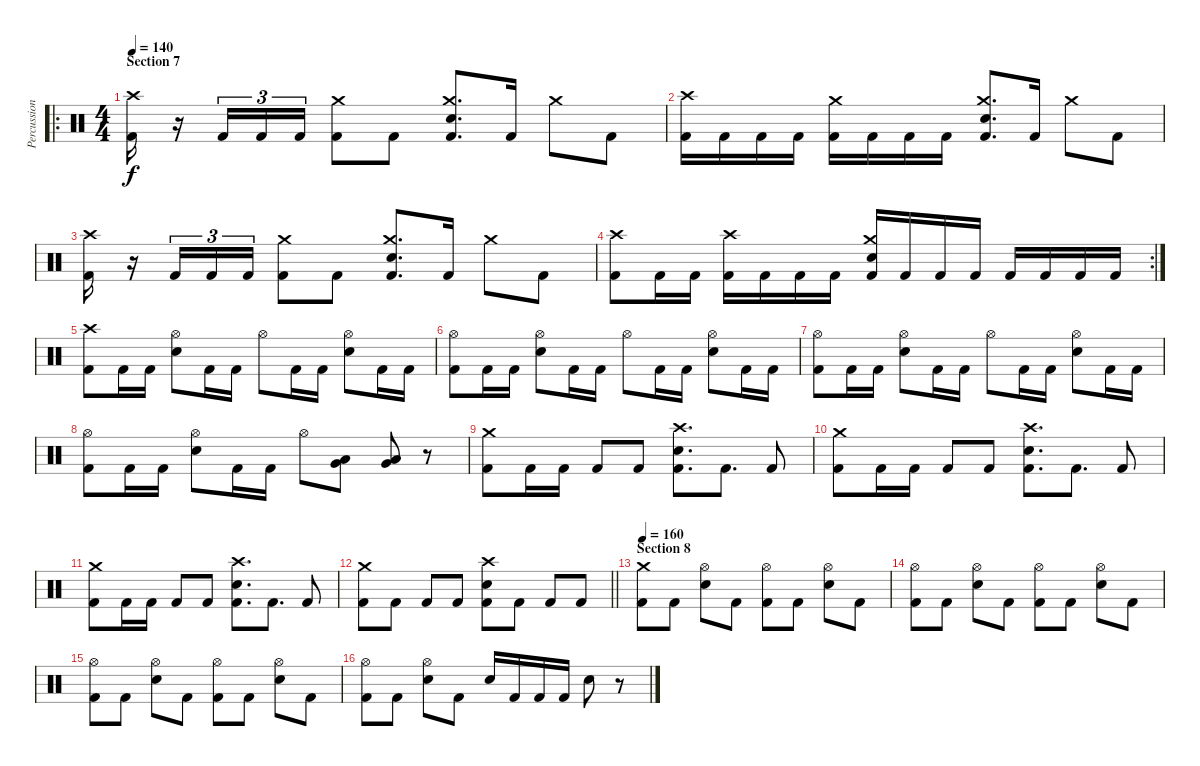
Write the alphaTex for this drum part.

\track ("Percussion" "Percussion") {instrument percussion}
\staff {score}
\articulation defaults
\ro
\ts (4 4)
\section ("" "Section 7")
\tempo 140
\clef neutral
\ks c
("Crash high (hit)" "Kick (hit) 2").16{dy f} r.16 "Kick (hit) 2".16{tu (3 2)} "Kick (hit) 2".16{tu (3 2)} "Kick (hit) 2".16{tu (3 2)} ("Crash medium (hit)" "Kick (hit) 2").8 "Kick (hit) 2".8 ("Crash medium (hit)" "Electric Snare (hit)" "Kick (hit) 2").8{d} "Kick (hit) 2".16 "Crash medium (hit)".8 "Kick (hit) 2".8 |
("Crash high (hit)" "Kick (hit) 2").16 "Kick (hit) 2".16 "Kick (hit) 2".16 "Kick (hit) 2".16 ("Crash medium (hit)" "Kick (hit) 2").16 "Kick (hit) 2".16 "Kick (hit) 2".16 "Kick (hit) 2".16 ("Crash medium (hit)" "Electric Snare (hit)" "Kick (hit) 2").8{d} "Kick (hit) 2".16 "Crash medium (hit)".8 "Kick (hit) 2".8 |
("Crash high (hit)" "Kick (hit) 2").16 r.16 "Kick (hit) 2".16{tu (3 2)} "Kick (hit) 2".16{tu (3 2)} "Kick (hit) 2".16{tu (3 2)} ("Crash medium (hit)" "Kick (hit) 2").8 "Kick (hit) 2".8 ("Crash medium (hit)" "Electric Snare (hit)" "Kick (hit) 2").8{d} "Kick (hit) 2".16 "Crash medium (hit)".8 "Kick (hit) 2".8 |
\rc 2
("Crash high (hit)" "Kick (hit) 2").8 "Kick (hit) 2".16 "Kick (hit) 2".16 ("Crash high (hit)" "Kick (hit) 2").16 "Kick (hit) 2".16 "Kick (hit) 2".16 "Kick (hit) 2".16 ("Crash medium (hit)" "Electric Snare (hit)" "Kick (hit) 2").16 "Kick (hit) 2".16 "Kick (hit) 2".16 "Kick (hit) 2".16 "Kick (hit) 2".16 "Kick (hit) 2".16 "Kick (hit) 2".16 "Kick (hit) 2".16 |
("Crash high (hit)" "Kick (hit) 2").8 "Kick (hit) 2".16 "Kick (hit) 2".16 ("Hi-Hat (open)" "Electric Snare (hit)").8 "Kick (hit) 2".16 "Kick (hit) 2".16 "Hi-Hat (open)".8 "Kick (hit) 2".16 "Kick (hit) 2".16 ("Hi-Hat (open)" "Electric Snare (hit)").8 "Kick (hit) 2".16 "Kick (hit) 2".16 |
("Hi-Hat (open)" "Kick (hit) 2").8 "Kick (hit) 2".16 "Kick (hit) 2".16 ("Hi-Hat (open)" "Electric Snare (hit)").8 "Kick (hit) 2".16 "Kick (hit) 2".16 "Hi-Hat (open)".8 "Kick (hit) 2".16 "Kick (hit) 2".16 ("Hi-Hat (open)" "Electric Snare (hit)").8 "Kick (hit) 2".16 "Kick (hit) 2".16 |
("Hi-Hat (open)" "Kick (hit) 2").8 "Kick (hit) 2".16 "Kick (hit) 2".16 ("Hi-Hat (open)" "Electric Snare (hit)").8 "Kick (hit) 2".16 "Kick (hit) 2".16 "Hi-Hat (open)".8 "Kick (hit) 2".16 "Kick (hit) 2".16 ("Hi-Hat (open)" "Electric Snare (hit)").8 "Kick (hit) 2".16 "Kick (hit) 2".16 |
("Hi-Hat (open)" "Kick (hit) 2").8 "Kick (hit) 2".16 "Kick (hit) 2".16 ("Hi-Hat (open)" "Electric Snare (hit)").8 "Kick (hit) 2".16 "Kick (hit) 2".16 "Hi-Hat (open)".8 ("Very Low Tom (hit)" "Low Floor Tom (hit)").8 ("Very Low Tom (hit)" "Low Floor Tom (hit)").8 r.8 |
("Crash medium (hit)" "Kick (hit) 2").8 "Kick (hit) 2".16 "Kick (hit) 2".16 "Kick (hit) 2".8 "Kick (hit) 2".8 ("Crash high (hit)" "Electric Snare (hit)" "Kick (hit) 2").8{d} "Kick (hit) 2".8{d} "Kick (hit) 2".8 |
("Crash medium (hit)" "Kick (hit) 2").8 "Kick (hit) 2".16 "Kick (hit) 2".16 "Kick (hit) 2".8 "Kick (hit) 2".8 ("Crash high (hit)" "Electric Snare (hit)" "Kick (hit) 2").8{d} "Kick (hit) 2".8{d} "Kick (hit) 2".8 |
("Crash medium (hit)" "Kick (hit) 2").8 "Kick (hit) 2".16 "Kick (hit) 2".16 "Kick (hit) 2".8 "Kick (hit) 2".8 ("Crash high (hit)" "Electric Snare (hit)" "Kick (hit) 2").8{d} "Kick (hit) 2".8{d} "Kick (hit) 2".8 |
\barLineRight lightlight
("Crash medium (hit)" "Kick (hit) 2").8 "Kick (hit) 2".8 "Kick (hit) 2".8 "Kick (hit) 2".8 ("Crash high (hit)" "Electric Snare (hit)" "Kick (hit) 2").8 "Kick (hit) 2".8 "Kick (hit) 2".8 "Kick (hit) 2".8 |
\section ("" "Section 8")
\tempo 160
("Crash medium (hit)" "Kick (hit) 2").8 "Kick (hit) 2".8 ("Hi-Hat (open)" "Electric Snare (hit)").8 "Kick (hit) 2".8 ("Hi-Hat (open)" "Kick (hit) 2").8 "Kick (hit) 2".8 ("Hi-Hat (open)" "Electric Snare (hit)").8 "Kick (hit) 2".8 |
("Hi-Hat (open)" "Kick (hit) 2").8 "Kick (hit) 2".8 ("Hi-Hat (open)" "Electric Snare (hit)").8 "Kick (hit) 2".8 ("Hi-Hat (open)" "Kick (hit) 2").8 "Kick (hit) 2".8 ("Hi-Hat (open)" "Electric Snare (hit)").8 "Kick (hit) 2".8 |
("Hi-Hat (open)" "Kick (hit) 2").8 "Kick (hit) 2".8 ("Hi-Hat (open)" "Electric Snare (hit)").8 "Kick (hit) 2".8 ("Hi-Hat (open)" "Kick (hit) 2").8 "Kick (hit) 2".8 ("Hi-Hat (open)" "Electric Snare (hit)").8 "Kick (hit) 2".8 |
("Hi-Hat (open)" "Kick (hit) 2").8 "Kick (hit) 2".8 ("Hi-Hat (open)" "Electric Snare (hit)").8 "Kick (hit) 2".8 "Electric Snare (hit)".16 "Kick (hit) 2".16 "Kick (hit) 2".16 "Kick (hit) 2".16 "Electric Snare (hit)".8 r.8
